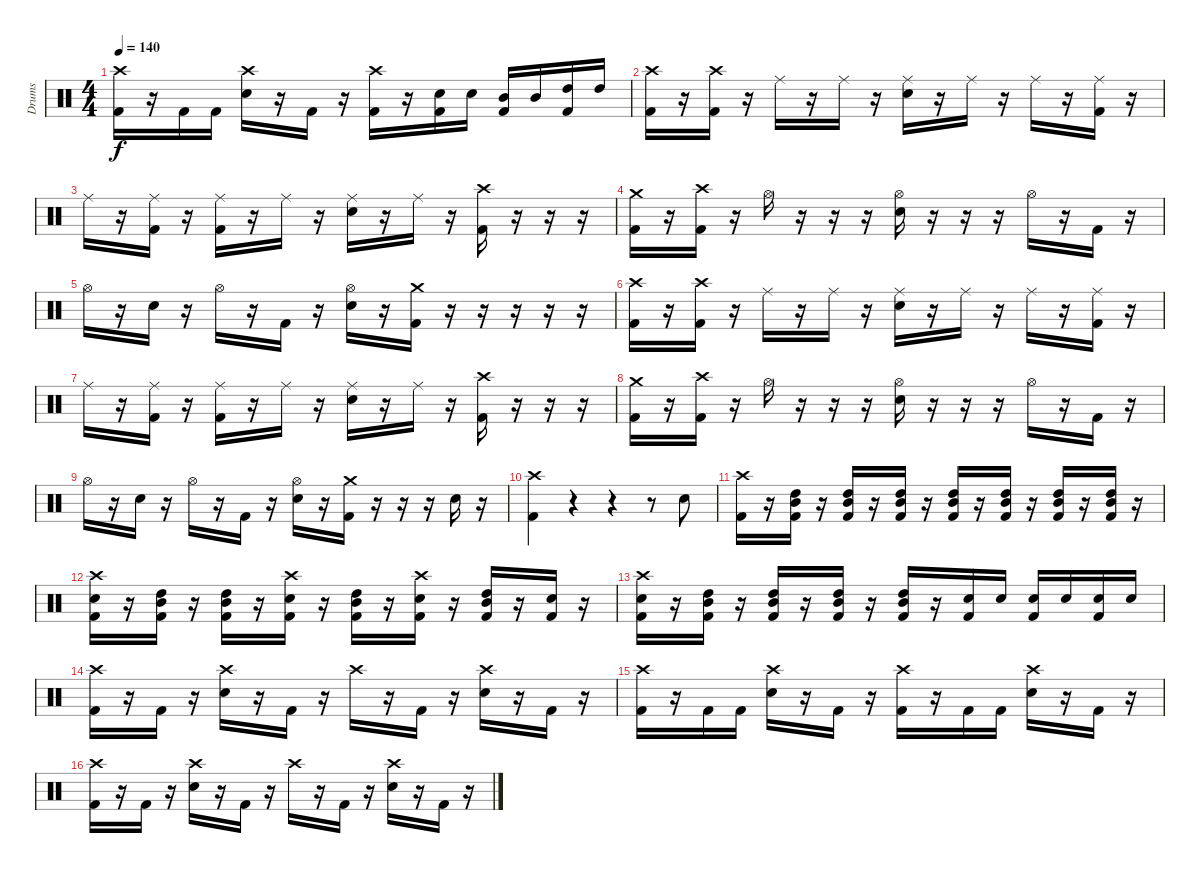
\track ("Drums" "Drums") {instrument percussion}
\staff {score}
\articulation defaults
\ts (4 4)
\tempo 140
\clef neutral
\ks c
("Crash high (hit)" "Kick (hit) 2").16{dy f} r.16 "Kick (hit) 2".16 "Kick (hit) 2".16 ("Crash high (hit)" "Electric Snare (hit)").16 r.16 "Kick (hit) 2".16 r.16 ("Crash high (hit)" "Kick (hit) 2").16 r.16 ("Electric Snare (hit)" "Kick (hit) 2").16 "Electric Snare (hit)".16 ("Mid Tom (hit)" "Kick (hit) 2").16 "Mid Tom (hit)".16 ("High Tom (hit)" "Kick (hit) 2").16 "High Tom (hit)".16 |
("Crash high (hit)" "Kick (hit) 2").16 r.16 ("Crash high (hit)" "Kick (hit) 2").16 r.16 "Ride (middle)".16 r.16 "Ride (middle)".16 r.16 ("Ride (middle)" "Electric Snare (hit)").16 r.16 "Ride (middle)".16 r.16 "Ride (middle)".16 r.16 ("Ride (middle)" "Kick (hit) 2").16 r.16 |
"Ride (middle)".16 r.16 ("Ride (middle)" "Kick (hit) 2").16 r.16 ("Ride (middle)" "Kick (hit) 2").16 r.16 "Ride (middle)".16 r.16 ("Ride (middle)" "Electric Snare (hit)").16 r.16 "Ride (middle)".16 r.16 ("Crash high (hit)" "Kick (hit) 2").16 r.16 r.16 r.16 |
("Crash medium (hit)" "Kick (hit) 2").16 r.16 ("Crash high (hit)" "Kick (hit) 2").16 r.16 "Hi-Hat (open)".16 r.16 r.16 r.16 ("Hi-Hat (open)" "Electric Snare (hit)").16 r.16 r.16 r.16 "Hi-Hat (open)".16 r.16 "Kick (hit) 2".16 r.16 |
"Hi-Hat (open)".16 r.16 "Electric Snare (hit)".16 r.16 "Hi-Hat (open)".16 r.16 "Kick (hit) 2".16 r.16 ("Hi-Hat (open)" "Electric Snare (hit)").16 r.16 ("Crash medium (hit)" "Kick (hit) 2").16 r.16 r.16 r.16 r.16 r.16 |
("Crash high (hit)" "Kick (hit) 2").16 r.16 ("Crash high (hit)" "Kick (hit) 2").16 r.16 "Ride (middle)".16 r.16 "Ride (middle)".16 r.16 ("Ride (middle)" "Electric Snare (hit)").16 r.16 "Ride (middle)".16 r.16 "Ride (middle)".16 r.16 ("Ride (middle)" "Kick (hit) 2").16 r.16 |
"Ride (middle)".16 r.16 ("Ride (middle)" "Kick (hit) 2").16 r.16 ("Ride (middle)" "Kick (hit) 2").16 r.16 "Ride (middle)".16 r.16 ("Ride (middle)" "Electric Snare (hit)").16 r.16 "Ride (middle)".16 r.16 ("Crash high (hit)" "Kick (hit) 2").16 r.16 r.16 r.16 |
("Crash medium (hit)" "Kick (hit) 2").16 r.16 ("Crash high (hit)" "Kick (hit) 2").16 r.16 "Hi-Hat (open)".16 r.16 r.16 r.16 ("Hi-Hat (open)" "Electric Snare (hit)").16 r.16 r.16 r.16 "Hi-Hat (open)".16 r.16 "Kick (hit) 2".16 r.16 |
"Hi-Hat (open)".16 r.16 "Electric Snare (hit)".16 r.16 "Hi-Hat (open)".16 r.16 "Kick (hit) 2".16 r.16 ("Hi-Hat (open)" "Electric Snare (hit)").16 r.16 ("Crash medium (hit)" "Kick (hit) 2").16 r.16 r.16 r.16 "Electric Snare (hit)".16 r.16 |
("Crash high (hit)" "Kick (hit) 2").4 r.4 r.4 r.8 "Electric Snare (hit)".8 |
("Crash high (hit)" "Kick (hit) 2").16 r.16 ("High Tom (hit)" "Mid Tom (hit)" "Kick (hit) 2").16 r.16 ("High Tom (hit)" "Mid Tom (hit)" "Kick (hit) 2").16 r.16 ("High Tom (hit)" "Mid Tom (hit)" "Kick (hit) 2").16 r.16 ("High Tom (hit)" "Mid Tom (hit)" "Kick (hit) 2").16 r.16 ("High Tom (hit)" "Mid Tom (hit)" "Kick (hit) 2").16 r.16 ("High Tom (hit)" "Mid Tom (hit)" "Kick (hit) 2").16 r.16 ("High Tom (hit)" "Mid Tom (hit)" "Kick (hit) 2").16 r.16 |
("Crash high (hit)" "Electric Snare (hit)" "Kick (hit) 2").16 r.16 ("High Tom (hit)" "Mid Tom (hit)" "Kick (hit) 2").16 r.16 ("High Tom (hit)" "Mid Tom (hit)" "Kick (hit) 2").16 r.16 ("Crash high (hit)" "Electric Snare (hit)" "Kick (hit) 2").16 r.16 ("High Tom (hit)" "Mid Tom (hit)" "Kick (hit) 2").16 r.16 ("Crash high (hit)" "Electric Snare (hit)" "Kick (hit) 2").16 r.16 ("High Tom (hit)" "Mid Tom (hit)" "Kick (hit) 2").16 r.16 ("Electric Snare (hit)" "Kick (hit) 2").16 r.16 |
("Crash high (hit)" "Electric Snare (hit)" "Kick (hit) 2").16 r.16 ("High Tom (hit)" "Mid Tom (hit)" "Kick (hit) 2").16 r.16 ("High Tom (hit)" "Mid Tom (hit)" "Kick (hit) 2").16 r.16 ("High Tom (hit)" "Mid Tom (hit)" "Kick (hit) 2").16 r.16 ("High Tom (hit)" "Mid Tom (hit)" "Kick (hit) 2").16 r.16 ("Electric Snare (hit)" "Kick (hit) 2").16 "Electric Snare (hit)".16 ("Electric Snare (hit)" "Kick (hit) 2").16 "Electric Snare (hit)".16 ("Electric Snare (hit)" "Kick (hit) 2").16 "Electric Snare (hit)".16 |
("Crash high (hit)" "Kick (hit) 2").16 r.16 "Kick (hit) 2".16 r.16 ("Crash high (hit)" "Electric Snare (hit)").16 r.16 "Kick (hit) 2".16 r.16 "Crash high (hit)".16 r.16 "Kick (hit) 2".16 r.16 ("Crash high (hit)" "Electric Snare (hit)").16 r.16 "Kick (hit) 2".16 r.16 |
("Crash high (hit)" "Kick (hit) 2").16 r.16 "Kick (hit) 2".16 "Kick (hit) 2".16 ("Crash high (hit)" "Electric Snare (hit)").16 r.16 "Kick (hit) 2".16 r.16 ("Crash high (hit)" "Kick (hit) 2").16 r.16 "Kick (hit) 2".16 "Kick (hit) 2".16 ("Crash high (hit)" "Electric Snare (hit)").16 r.16 "Kick (hit) 2".16 r.16 |
("Crash high (hit)" "Kick (hit) 2").16 r.16 "Kick (hit) 2".16 r.16 ("Crash high (hit)" "Electric Snare (hit)").16 r.16 "Kick (hit) 2".16 r.16 "Crash high (hit)".16 r.16 "Kick (hit) 2".16 r.16 ("Crash high (hit)" "Electric Snare (hit)").16 r.16 "Kick (hit) 2".16 r.16
